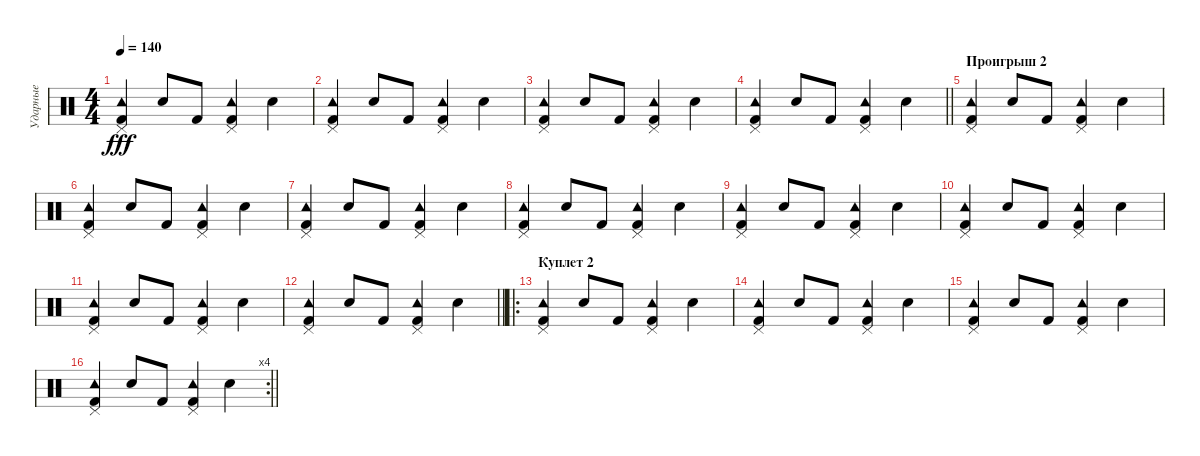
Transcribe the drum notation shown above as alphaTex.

\track ("Ударные" "Ударные") {instrument percussion}
\staff {score}
\articulation defaults
\ts (4 4)
\tempo 140
\clef neutral
\ks c
("Tambourine (hit)" "Pedal Hi-Hat (hit)" "Kick (hit) 2").4{dy fff} "Electric Snare (hit)".8 "Kick (hit) 2".8 ("Tambourine (hit)" "Pedal Hi-Hat (hit)" "Kick (hit) 2").4 "Electric Snare (hit)".4 |
("Tambourine (hit)" "Pedal Hi-Hat (hit)" "Kick (hit) 2").4 "Electric Snare (hit)".8 "Kick (hit) 2".8 ("Tambourine (hit)" "Pedal Hi-Hat (hit)" "Kick (hit) 2").4 "Electric Snare (hit)".4 |
("Tambourine (hit)" "Pedal Hi-Hat (hit)" "Kick (hit) 2").4 "Electric Snare (hit)".8 "Kick (hit) 2".8 ("Tambourine (hit)" "Pedal Hi-Hat (hit)" "Kick (hit) 2").4 "Electric Snare (hit)".4 |
\barLineRight lightlight
("Tambourine (hit)" "Pedal Hi-Hat (hit)" "Kick (hit) 2").4 "Electric Snare (hit)".8 "Kick (hit) 2".8 ("Tambourine (hit)" "Pedal Hi-Hat (hit)" "Kick (hit) 2").4 "Electric Snare (hit)".4 |
\section ("" "Проигрыш 2")
("Tambourine (hit)" "Pedal Hi-Hat (hit)" "Kick (hit) 2").4 "Electric Snare (hit)".8 "Kick (hit) 2".8 ("Tambourine (hit)" "Pedal Hi-Hat (hit)" "Kick (hit) 2").4 "Electric Snare (hit)".4 |
("Tambourine (hit)" "Pedal Hi-Hat (hit)" "Kick (hit) 2").4 "Electric Snare (hit)".8 "Kick (hit) 2".8 ("Tambourine (hit)" "Pedal Hi-Hat (hit)" "Kick (hit) 2").4 "Electric Snare (hit)".4 |
("Tambourine (hit)" "Pedal Hi-Hat (hit)" "Kick (hit) 2").4 "Electric Snare (hit)".8 "Kick (hit) 2".8 ("Tambourine (hit)" "Pedal Hi-Hat (hit)" "Kick (hit) 2").4 "Electric Snare (hit)".4 |
("Tambourine (hit)" "Pedal Hi-Hat (hit)" "Kick (hit) 2").4 "Electric Snare (hit)".8 "Kick (hit) 2".8 ("Tambourine (hit)" "Pedal Hi-Hat (hit)" "Kick (hit) 2").4 "Electric Snare (hit)".4 |
("Tambourine (hit)" "Pedal Hi-Hat (hit)" "Kick (hit) 2").4 "Electric Snare (hit)".8 "Kick (hit) 2".8 ("Tambourine (hit)" "Pedal Hi-Hat (hit)" "Kick (hit) 2").4 "Electric Snare (hit)".4 |
("Tambourine (hit)" "Pedal Hi-Hat (hit)" "Kick (hit) 2").4 "Electric Snare (hit)".8 "Kick (hit) 2".8 ("Tambourine (hit)" "Pedal Hi-Hat (hit)" "Kick (hit) 2").4 "Electric Snare (hit)".4 |
("Tambourine (hit)" "Pedal Hi-Hat (hit)" "Kick (hit) 2").4 "Electric Snare (hit)".8 "Kick (hit) 2".8 ("Tambourine (hit)" "Pedal Hi-Hat (hit)" "Kick (hit) 2").4 "Electric Snare (hit)".4 |
\barLineRight lightlight
("Tambourine (hit)" "Pedal Hi-Hat (hit)" "Kick (hit) 2").4 "Electric Snare (hit)".8 "Kick (hit) 2".8 ("Tambourine (hit)" "Pedal Hi-Hat (hit)" "Kick (hit) 2").4 "Electric Snare (hit)".4 |
\ro
\section ("" "Куплет 2")
("Tambourine (hit)" "Pedal Hi-Hat (hit)" "Kick (hit) 2").4 "Electric Snare (hit)".8 "Kick (hit) 2".8 ("Tambourine (hit)" "Pedal Hi-Hat (hit)" "Kick (hit) 2").4 "Electric Snare (hit)".4 |
("Tambourine (hit)" "Pedal Hi-Hat (hit)" "Kick (hit) 2").4 "Electric Snare (hit)".8 "Kick (hit) 2".8 ("Tambourine (hit)" "Pedal Hi-Hat (hit)" "Kick (hit) 2").4 "Electric Snare (hit)".4 |
("Tambourine (hit)" "Pedal Hi-Hat (hit)" "Kick (hit) 2").4 "Electric Snare (hit)".8 "Kick (hit) 2".8 ("Tambourine (hit)" "Pedal Hi-Hat (hit)" "Kick (hit) 2").4 "Electric Snare (hit)".4 |
\rc 4
\barLineRight lightlight
("Tambourine (hit)" "Pedal Hi-Hat (hit)" "Kick (hit) 2").4 "Electric Snare (hit)".8 "Kick (hit) 2".8 ("Tambourine (hit)" "Pedal Hi-Hat (hit)" "Kick (hit) 2").4 "Electric Snare (hit)".4
